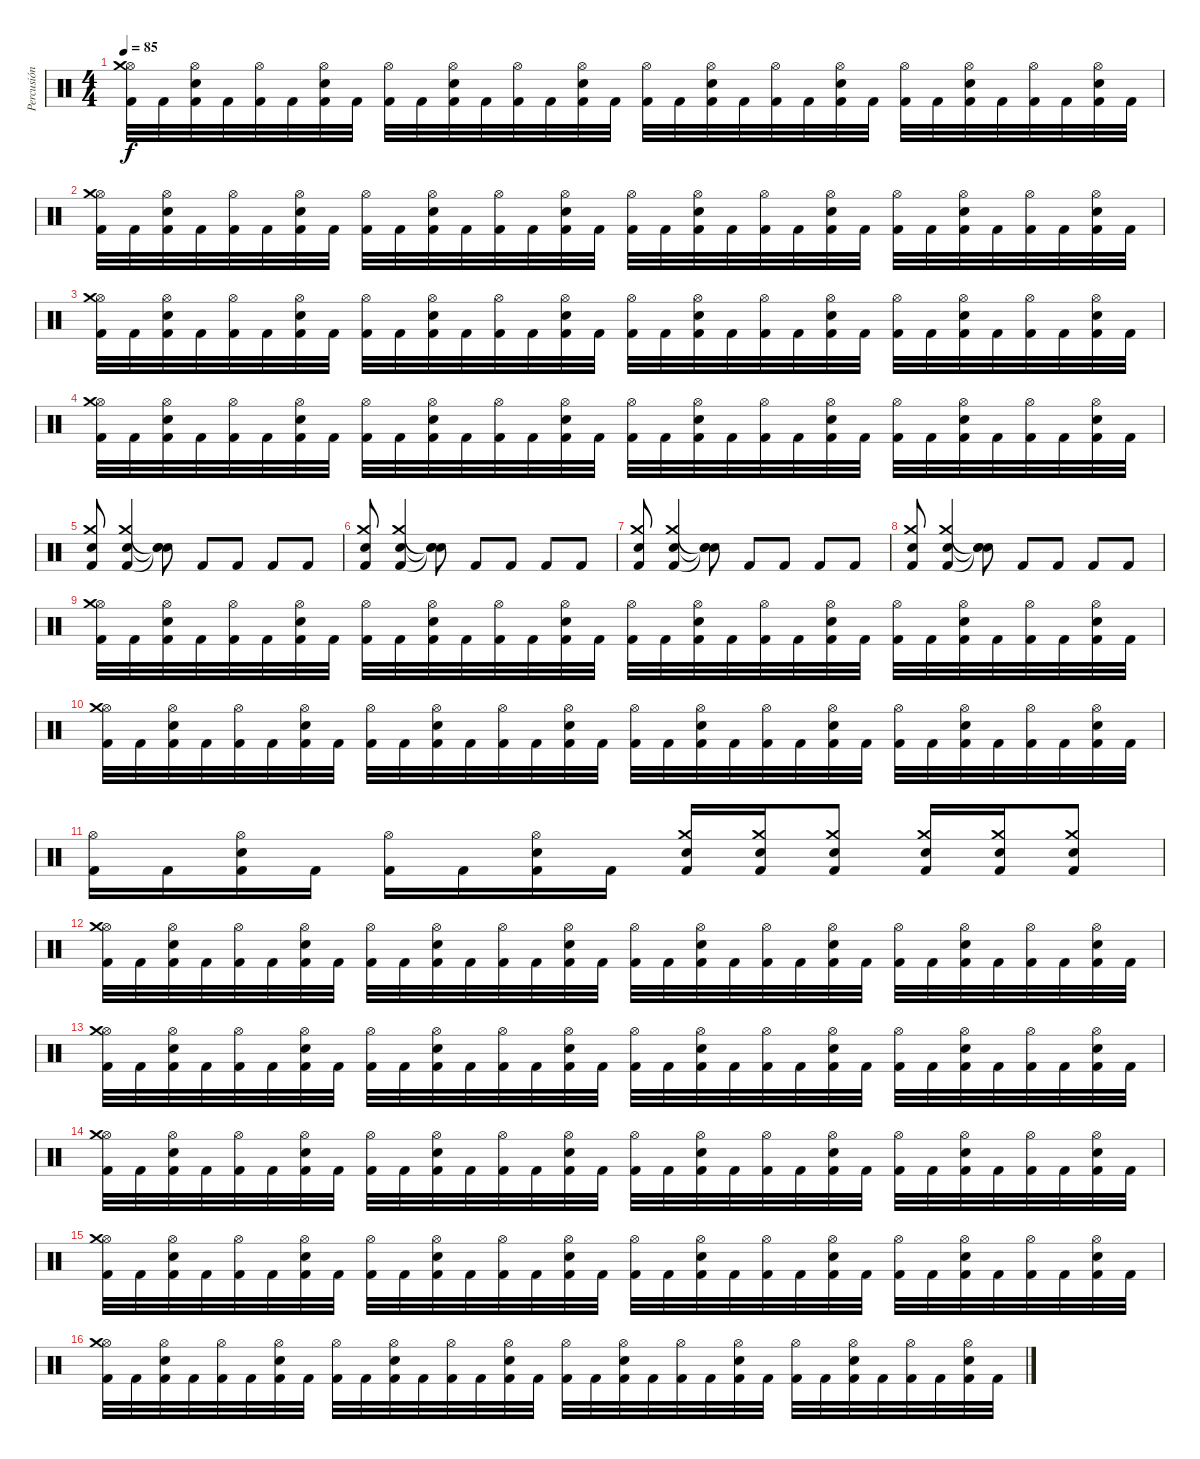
\track ("Percusión" "Percusión") {instrument percussion}
\staff {score}
\articulation defaults
\ts (4 4)
\tempo 85
\clef neutral
\ks c
("Hi-Hat (open)" "Kick (hit) 2" "Crash medium (hit)").32{dy f} "Kick (hit) 2".32 ("Hi-Hat (open)" "Electric Snare (hit)" "Kick (hit) 2").32 "Kick (hit) 2".32 ("Hi-Hat (open)" "Kick (hit) 2").32 "Kick (hit) 2".32 ("Hi-Hat (open)" "Electric Snare (hit)" "Kick (hit) 2").32 "Kick (hit) 2".32 ("Hi-Hat (open)" "Kick (hit) 2").32 "Kick (hit) 2".32 ("Hi-Hat (open)" "Electric Snare (hit)" "Kick (hit) 2").32 "Kick (hit) 2".32 ("Hi-Hat (open)" "Kick (hit) 2").32 "Kick (hit) 2".32 ("Hi-Hat (open)" "Electric Snare (hit)" "Kick (hit) 2").32 "Kick (hit) 2".32 ("Hi-Hat (open)" "Kick (hit) 2").32 "Kick (hit) 2".32 ("Hi-Hat (open)" "Electric Snare (hit)" "Kick (hit) 2").32 "Kick (hit) 2".32 ("Hi-Hat (open)" "Kick (hit) 2").32 "Kick (hit) 2".32 ("Hi-Hat (open)" "Electric Snare (hit)" "Kick (hit) 2").32 "Kick (hit) 2".32 ("Hi-Hat (open)" "Kick (hit) 2").32 "Kick (hit) 2".32 ("Hi-Hat (open)" "Electric Snare (hit)" "Kick (hit) 2").32 "Kick (hit) 2".32 ("Hi-Hat (open)" "Kick (hit) 2").32 "Kick (hit) 2".32 ("Hi-Hat (open)" "Electric Snare (hit)" "Kick (hit) 2").32 "Kick (hit) 2".32 |
("Hi-Hat (open)" "Kick (hit) 2" "Crash medium (hit)").32 "Kick (hit) 2".32 ("Hi-Hat (open)" "Electric Snare (hit)" "Kick (hit) 2").32 "Kick (hit) 2".32 ("Hi-Hat (open)" "Kick (hit) 2").32 "Kick (hit) 2".32 ("Hi-Hat (open)" "Electric Snare (hit)" "Kick (hit) 2").32 "Kick (hit) 2".32 ("Hi-Hat (open)" "Kick (hit) 2").32 "Kick (hit) 2".32 ("Hi-Hat (open)" "Electric Snare (hit)" "Kick (hit) 2").32 "Kick (hit) 2".32 ("Hi-Hat (open)" "Kick (hit) 2").32 "Kick (hit) 2".32 ("Hi-Hat (open)" "Electric Snare (hit)" "Kick (hit) 2").32 "Kick (hit) 2".32 ("Hi-Hat (open)" "Kick (hit) 2").32 "Kick (hit) 2".32 ("Hi-Hat (open)" "Electric Snare (hit)" "Kick (hit) 2").32 "Kick (hit) 2".32 ("Hi-Hat (open)" "Kick (hit) 2").32 "Kick (hit) 2".32 ("Hi-Hat (open)" "Electric Snare (hit)" "Kick (hit) 2").32 "Kick (hit) 2".32 ("Hi-Hat (open)" "Kick (hit) 2").32 "Kick (hit) 2".32 ("Hi-Hat (open)" "Electric Snare (hit)" "Kick (hit) 2").32 "Kick (hit) 2".32 ("Hi-Hat (open)" "Kick (hit) 2").32 "Kick (hit) 2".32 ("Hi-Hat (open)" "Electric Snare (hit)" "Kick (hit) 2").32 "Kick (hit) 2".32 |
("Hi-Hat (open)" "Kick (hit) 2" "Crash medium (hit)").32 "Kick (hit) 2".32 ("Hi-Hat (open)" "Electric Snare (hit)" "Kick (hit) 2").32 "Kick (hit) 2".32 ("Hi-Hat (open)" "Kick (hit) 2").32 "Kick (hit) 2".32 ("Hi-Hat (open)" "Electric Snare (hit)" "Kick (hit) 2").32 "Kick (hit) 2".32 ("Hi-Hat (open)" "Kick (hit) 2").32 "Kick (hit) 2".32 ("Hi-Hat (open)" "Electric Snare (hit)" "Kick (hit) 2").32 "Kick (hit) 2".32 ("Hi-Hat (open)" "Kick (hit) 2").32 "Kick (hit) 2".32 ("Hi-Hat (open)" "Electric Snare (hit)" "Kick (hit) 2").32 "Kick (hit) 2".32 ("Hi-Hat (open)" "Kick (hit) 2").32 "Kick (hit) 2".32 ("Hi-Hat (open)" "Electric Snare (hit)" "Kick (hit) 2").32 "Kick (hit) 2".32 ("Hi-Hat (open)" "Kick (hit) 2").32 "Kick (hit) 2".32 ("Hi-Hat (open)" "Electric Snare (hit)" "Kick (hit) 2").32 "Kick (hit) 2".32 ("Hi-Hat (open)" "Kick (hit) 2").32 "Kick (hit) 2".32 ("Hi-Hat (open)" "Electric Snare (hit)" "Kick (hit) 2").32 "Kick (hit) 2".32 ("Hi-Hat (open)" "Kick (hit) 2").32 "Kick (hit) 2".32 ("Hi-Hat (open)" "Electric Snare (hit)" "Kick (hit) 2").32 "Kick (hit) 2".32 |
("Hi-Hat (open)" "Kick (hit) 2" "Crash medium (hit)").32 "Kick (hit) 2".32 ("Hi-Hat (open)" "Electric Snare (hit)" "Kick (hit) 2").32 "Kick (hit) 2".32 ("Hi-Hat (open)" "Kick (hit) 2").32 "Kick (hit) 2".32 ("Hi-Hat (open)" "Electric Snare (hit)" "Kick (hit) 2").32 "Kick (hit) 2".32 ("Hi-Hat (open)" "Kick (hit) 2").32 "Kick (hit) 2".32 ("Hi-Hat (open)" "Electric Snare (hit)" "Kick (hit) 2").32 "Kick (hit) 2".32 ("Hi-Hat (open)" "Kick (hit) 2").32 "Kick (hit) 2".32 ("Hi-Hat (open)" "Electric Snare (hit)" "Kick (hit) 2").32 "Kick (hit) 2".32 ("Hi-Hat (open)" "Kick (hit) 2").32 "Kick (hit) 2".32 ("Hi-Hat (open)" "Electric Snare (hit)" "Kick (hit) 2").32 "Kick (hit) 2".32 ("Hi-Hat (open)" "Kick (hit) 2").32 "Kick (hit) 2".32 ("Hi-Hat (open)" "Electric Snare (hit)" "Kick (hit) 2").32 "Kick (hit) 2".32 ("Hi-Hat (open)" "Kick (hit) 2").32 "Kick (hit) 2".32 ("Hi-Hat (open)" "Electric Snare (hit)" "Kick (hit) 2").32 "Kick (hit) 2".32 ("Hi-Hat (open)" "Kick (hit) 2").32 "Kick (hit) 2".32 ("Hi-Hat (open)" "Electric Snare (hit)" "Kick (hit) 2").32 "Kick (hit) 2".32 |
("Crash medium (hit)" "Electric Snare (hit)" "Kick (hit) 2").8 ("Crash medium (hit)" "Electric Snare (hit)" "Kick (hit) 2").4 ("Snare (hit)"{t} "Snare (hit)"{t} "Snare (hit)"{t}).8 "Kick (hit) 2".8 "Kick (hit) 2".8 "Kick (hit) 2".8 "Kick (hit) 2".8 |
("Crash medium (hit)" "Electric Snare (hit)" "Kick (hit) 2").8 ("Crash medium (hit)" "Electric Snare (hit)" "Kick (hit) 2").4 ("Snare (hit)"{t} "Snare (hit)"{t} "Snare (hit)"{t}).8 "Kick (hit) 2".8 "Kick (hit) 2".8 "Kick (hit) 2".8 "Kick (hit) 2".8 |
("Crash medium (hit)" "Electric Snare (hit)" "Kick (hit) 2").8 ("Crash medium (hit)" "Electric Snare (hit)" "Kick (hit) 2").4 ("Snare (hit)"{t} "Snare (hit)"{t} "Snare (hit)"{t}).8 "Kick (hit) 2".8 "Kick (hit) 2".8 "Kick (hit) 2".8 "Kick (hit) 2".8 |
("Crash medium (hit)" "Electric Snare (hit)" "Kick (hit) 2").8 ("Crash medium (hit)" "Electric Snare (hit)" "Kick (hit) 2").4 ("Snare (hit)"{t} "Snare (hit)"{t} "Snare (hit)"{t}).8 "Kick (hit) 2".8 "Kick (hit) 2".8 "Kick (hit) 2".8 "Kick (hit) 2".8 |
("Hi-Hat (open)" "Kick (hit) 2" "Crash medium (hit)").32 "Kick (hit) 2".32 ("Hi-Hat (open)" "Electric Snare (hit)" "Kick (hit) 2").32 "Kick (hit) 2".32 ("Hi-Hat (open)" "Kick (hit) 2").32 "Kick (hit) 2".32 ("Hi-Hat (open)" "Electric Snare (hit)" "Kick (hit) 2").32 "Kick (hit) 2".32 ("Hi-Hat (open)" "Kick (hit) 2").32 "Kick (hit) 2".32 ("Hi-Hat (open)" "Electric Snare (hit)" "Kick (hit) 2").32 "Kick (hit) 2".32 ("Hi-Hat (open)" "Kick (hit) 2").32 "Kick (hit) 2".32 ("Hi-Hat (open)" "Electric Snare (hit)" "Kick (hit) 2").32 "Kick (hit) 2".32 ("Hi-Hat (open)" "Kick (hit) 2").32 "Kick (hit) 2".32 ("Hi-Hat (open)" "Electric Snare (hit)" "Kick (hit) 2").32 "Kick (hit) 2".32 ("Hi-Hat (open)" "Kick (hit) 2").32 "Kick (hit) 2".32 ("Hi-Hat (open)" "Electric Snare (hit)" "Kick (hit) 2").32 "Kick (hit) 2".32 ("Hi-Hat (open)" "Kick (hit) 2").32 "Kick (hit) 2".32 ("Hi-Hat (open)" "Electric Snare (hit)" "Kick (hit) 2").32 "Kick (hit) 2".32 ("Hi-Hat (open)" "Kick (hit) 2").32 "Kick (hit) 2".32 ("Hi-Hat (open)" "Electric Snare (hit)" "Kick (hit) 2").32 "Kick (hit) 2".32 |
("Hi-Hat (open)" "Kick (hit) 2" "Crash medium (hit)").32 "Kick (hit) 2".32 ("Hi-Hat (open)" "Electric Snare (hit)" "Kick (hit) 2").32 "Kick (hit) 2".32 ("Hi-Hat (open)" "Kick (hit) 2").32 "Kick (hit) 2".32 ("Hi-Hat (open)" "Electric Snare (hit)" "Kick (hit) 2").32 "Kick (hit) 2".32 ("Hi-Hat (open)" "Kick (hit) 2").32 "Kick (hit) 2".32 ("Hi-Hat (open)" "Electric Snare (hit)" "Kick (hit) 2").32 "Kick (hit) 2".32 ("Hi-Hat (open)" "Kick (hit) 2").32 "Kick (hit) 2".32 ("Hi-Hat (open)" "Electric Snare (hit)" "Kick (hit) 2").32 "Kick (hit) 2".32 ("Hi-Hat (open)" "Kick (hit) 2").32 "Kick (hit) 2".32 ("Hi-Hat (open)" "Electric Snare (hit)" "Kick (hit) 2").32 "Kick (hit) 2".32 ("Hi-Hat (open)" "Kick (hit) 2").32 "Kick (hit) 2".32 ("Hi-Hat (open)" "Electric Snare (hit)" "Kick (hit) 2").32 "Kick (hit) 2".32 ("Hi-Hat (open)" "Kick (hit) 2").32 "Kick (hit) 2".32 ("Hi-Hat (open)" "Electric Snare (hit)" "Kick (hit) 2").32 "Kick (hit) 2".32 ("Hi-Hat (open)" "Kick (hit) 2").32 "Kick (hit) 2".32 ("Hi-Hat (open)" "Electric Snare (hit)" "Kick (hit) 2").32 "Kick (hit) 2".32 |
("Hi-Hat (open)" "Kick (hit) 2").16 "Kick (hit) 2".16 ("Hi-Hat (open)" "Electric Snare (hit)" "Kick (hit) 2").16 "Kick (hit) 2".16 ("Hi-Hat (open)" "Kick (hit) 2").16 "Kick (hit) 2".16 ("Hi-Hat (open)" "Electric Snare (hit)" "Kick (hit) 2").16 "Kick (hit) 2".16 ("Crash medium (hit)" "Electric Snare (hit)" "Kick (hit) 2").16 ("Crash medium (hit)" "Electric Snare (hit)" "Kick (hit) 2").16 ("Crash medium (hit)" "Electric Snare (hit)" "Kick (hit) 2").8 ("Crash medium (hit)" "Electric Snare (hit)" "Kick (hit) 2").16 ("Crash medium (hit)" "Electric Snare (hit)" "Kick (hit) 2").16 ("Crash medium (hit)" "Electric Snare (hit)" "Kick (hit) 2").8 |
("Hi-Hat (open)" "Kick (hit) 2" "Crash medium (hit)").32 "Kick (hit) 2".32 ("Hi-Hat (open)" "Electric Snare (hit)" "Kick (hit) 2").32 "Kick (hit) 2".32 ("Hi-Hat (open)" "Kick (hit) 2").32 "Kick (hit) 2".32 ("Hi-Hat (open)" "Electric Snare (hit)" "Kick (hit) 2").32 "Kick (hit) 2".32 ("Hi-Hat (open)" "Kick (hit) 2").32 "Kick (hit) 2".32 ("Hi-Hat (open)" "Electric Snare (hit)" "Kick (hit) 2").32 "Kick (hit) 2".32 ("Hi-Hat (open)" "Kick (hit) 2").32 "Kick (hit) 2".32 ("Hi-Hat (open)" "Electric Snare (hit)" "Kick (hit) 2").32 "Kick (hit) 2".32 ("Hi-Hat (open)" "Kick (hit) 2").32 "Kick (hit) 2".32 ("Hi-Hat (open)" "Electric Snare (hit)" "Kick (hit) 2").32 "Kick (hit) 2".32 ("Hi-Hat (open)" "Kick (hit) 2").32 "Kick (hit) 2".32 ("Hi-Hat (open)" "Electric Snare (hit)" "Kick (hit) 2").32 "Kick (hit) 2".32 ("Hi-Hat (open)" "Kick (hit) 2").32 "Kick (hit) 2".32 ("Hi-Hat (open)" "Electric Snare (hit)" "Kick (hit) 2").32 "Kick (hit) 2".32 ("Hi-Hat (open)" "Kick (hit) 2").32 "Kick (hit) 2".32 ("Hi-Hat (open)" "Electric Snare (hit)" "Kick (hit) 2").32 "Kick (hit) 2".32 |
("Hi-Hat (open)" "Kick (hit) 2" "Crash medium (hit)").32 "Kick (hit) 2".32 ("Hi-Hat (open)" "Electric Snare (hit)" "Kick (hit) 2").32 "Kick (hit) 2".32 ("Hi-Hat (open)" "Kick (hit) 2").32 "Kick (hit) 2".32 ("Hi-Hat (open)" "Electric Snare (hit)" "Kick (hit) 2").32 "Kick (hit) 2".32 ("Hi-Hat (open)" "Kick (hit) 2").32 "Kick (hit) 2".32 ("Hi-Hat (open)" "Electric Snare (hit)" "Kick (hit) 2").32 "Kick (hit) 2".32 ("Hi-Hat (open)" "Kick (hit) 2").32 "Kick (hit) 2".32 ("Hi-Hat (open)" "Electric Snare (hit)" "Kick (hit) 2").32 "Kick (hit) 2".32 ("Hi-Hat (open)" "Kick (hit) 2").32 "Kick (hit) 2".32 ("Hi-Hat (open)" "Electric Snare (hit)" "Kick (hit) 2").32 "Kick (hit) 2".32 ("Hi-Hat (open)" "Kick (hit) 2").32 "Kick (hit) 2".32 ("Hi-Hat (open)" "Electric Snare (hit)" "Kick (hit) 2").32 "Kick (hit) 2".32 ("Hi-Hat (open)" "Kick (hit) 2").32 "Kick (hit) 2".32 ("Hi-Hat (open)" "Electric Snare (hit)" "Kick (hit) 2").32 "Kick (hit) 2".32 ("Hi-Hat (open)" "Kick (hit) 2").32 "Kick (hit) 2".32 ("Hi-Hat (open)" "Electric Snare (hit)" "Kick (hit) 2").32 "Kick (hit) 2".32 |
("Hi-Hat (open)" "Kick (hit) 2" "Crash medium (hit)").32 "Kick (hit) 2".32 ("Hi-Hat (open)" "Electric Snare (hit)" "Kick (hit) 2").32 "Kick (hit) 2".32 ("Hi-Hat (open)" "Kick (hit) 2").32 "Kick (hit) 2".32 ("Hi-Hat (open)" "Electric Snare (hit)" "Kick (hit) 2").32 "Kick (hit) 2".32 ("Hi-Hat (open)" "Kick (hit) 2").32 "Kick (hit) 2".32 ("Hi-Hat (open)" "Electric Snare (hit)" "Kick (hit) 2").32 "Kick (hit) 2".32 ("Hi-Hat (open)" "Kick (hit) 2").32 "Kick (hit) 2".32 ("Hi-Hat (open)" "Electric Snare (hit)" "Kick (hit) 2").32 "Kick (hit) 2".32 ("Hi-Hat (open)" "Kick (hit) 2").32 "Kick (hit) 2".32 ("Hi-Hat (open)" "Electric Snare (hit)" "Kick (hit) 2").32 "Kick (hit) 2".32 ("Hi-Hat (open)" "Kick (hit) 2").32 "Kick (hit) 2".32 ("Hi-Hat (open)" "Electric Snare (hit)" "Kick (hit) 2").32 "Kick (hit) 2".32 ("Hi-Hat (open)" "Kick (hit) 2").32 "Kick (hit) 2".32 ("Hi-Hat (open)" "Electric Snare (hit)" "Kick (hit) 2").32 "Kick (hit) 2".32 ("Hi-Hat (open)" "Kick (hit) 2").32 "Kick (hit) 2".32 ("Hi-Hat (open)" "Electric Snare (hit)" "Kick (hit) 2").32 "Kick (hit) 2".32 |
("Hi-Hat (open)" "Kick (hit) 2" "Crash medium (hit)").32 "Kick (hit) 2".32 ("Hi-Hat (open)" "Electric Snare (hit)" "Kick (hit) 2").32 "Kick (hit) 2".32 ("Hi-Hat (open)" "Kick (hit) 2").32 "Kick (hit) 2".32 ("Hi-Hat (open)" "Electric Snare (hit)" "Kick (hit) 2").32 "Kick (hit) 2".32 ("Hi-Hat (open)" "Kick (hit) 2").32 "Kick (hit) 2".32 ("Hi-Hat (open)" "Electric Snare (hit)" "Kick (hit) 2").32 "Kick (hit) 2".32 ("Hi-Hat (open)" "Kick (hit) 2").32 "Kick (hit) 2".32 ("Hi-Hat (open)" "Electric Snare (hit)" "Kick (hit) 2").32 "Kick (hit) 2".32 ("Hi-Hat (open)" "Kick (hit) 2").32 "Kick (hit) 2".32 ("Hi-Hat (open)" "Electric Snare (hit)" "Kick (hit) 2").32 "Kick (hit) 2".32 ("Hi-Hat (open)" "Kick (hit) 2").32 "Kick (hit) 2".32 ("Hi-Hat (open)" "Electric Snare (hit)" "Kick (hit) 2").32 "Kick (hit) 2".32 ("Hi-Hat (open)" "Kick (hit) 2").32 "Kick (hit) 2".32 ("Hi-Hat (open)" "Electric Snare (hit)" "Kick (hit) 2").32 "Kick (hit) 2".32 ("Hi-Hat (open)" "Kick (hit) 2").32 "Kick (hit) 2".32 ("Hi-Hat (open)" "Electric Snare (hit)" "Kick (hit) 2").32 "Kick (hit) 2".32 |
("Hi-Hat (open)" "Kick (hit) 2" "Crash medium (hit)").32 "Kick (hit) 2".32 ("Hi-Hat (open)" "Electric Snare (hit)" "Kick (hit) 2").32 "Kick (hit) 2".32 ("Hi-Hat (open)" "Kick (hit) 2").32 "Kick (hit) 2".32 ("Hi-Hat (open)" "Electric Snare (hit)" "Kick (hit) 2").32 "Kick (hit) 2".32 ("Hi-Hat (open)" "Kick (hit) 2").32 "Kick (hit) 2".32 ("Hi-Hat (open)" "Electric Snare (hit)" "Kick (hit) 2").32 "Kick (hit) 2".32 ("Hi-Hat (open)" "Kick (hit) 2").32 "Kick (hit) 2".32 ("Hi-Hat (open)" "Electric Snare (hit)" "Kick (hit) 2").32 "Kick (hit) 2".32 ("Hi-Hat (open)" "Kick (hit) 2").32 "Kick (hit) 2".32 ("Hi-Hat (open)" "Electric Snare (hit)" "Kick (hit) 2").32 "Kick (hit) 2".32 ("Hi-Hat (open)" "Kick (hit) 2").32 "Kick (hit) 2".32 ("Hi-Hat (open)" "Electric Snare (hit)" "Kick (hit) 2").32 "Kick (hit) 2".32 ("Hi-Hat (open)" "Kick (hit) 2").32 "Kick (hit) 2".32 ("Hi-Hat (open)" "Electric Snare (hit)" "Kick (hit) 2").32 "Kick (hit) 2".32 ("Hi-Hat (open)" "Kick (hit) 2").32 "Kick (hit) 2".32 ("Hi-Hat (open)" "Electric Snare (hit)" "Kick (hit) 2").32 "Kick (hit) 2".32
